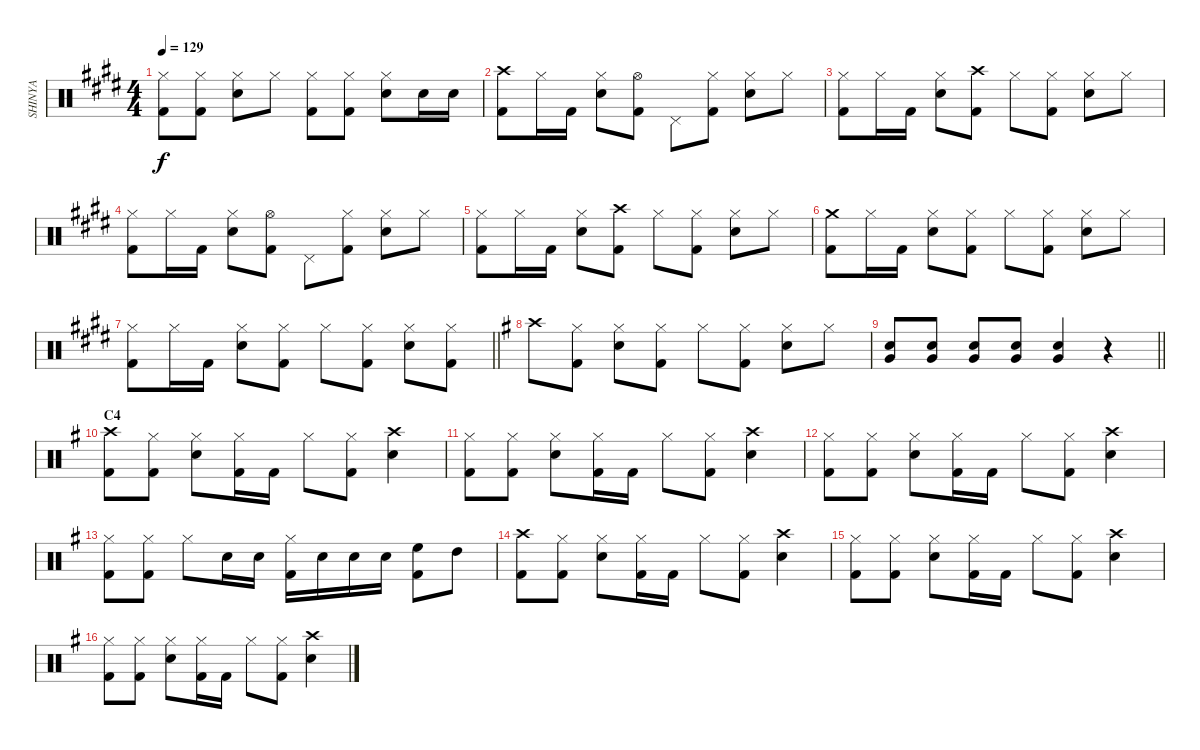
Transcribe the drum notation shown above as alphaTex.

\track ("SHINYA" "SHINYA") {instrument percussion}
\staff {score}
\articulation defaults
\ts (4 4)
\tempo 129
\clef neutral
\ks e
("Hi-Hat (closed)" "Kick (hit) 2").8{dy f} ("Hi-Hat (closed)" "Kick (hit) 2").8 ("Hi-Hat (closed)" "Snare (hit) 2").8 "Hi-Hat (closed)".8 ("Hi-Hat (closed)" "Kick (hit) 2").8 ("Hi-Hat (closed)" "Kick (hit) 2").8 ("Hi-Hat (closed)" "Snare (hit) 2").8 "Snare (hit) 2".16 "Snare (hit) 2".16 |
("Crash high (hit)" "Kick (hit) 2").8 "Hi-Hat (closed)".16 "Kick (hit) 2".16 ("Hi-Hat (closed)" "Snare (hit) 2").8 ("Hi-Hat (open)" "Kick (hit) 2").8 "Pedal Hi-Hat (hit)".8 ("Hi-Hat (closed)" "Kick (hit) 2").8 ("Hi-Hat (closed)" "Snare (hit) 2").8 "Hi-Hat (closed)".8 |
("Hi-Hat (closed)" "Kick (hit) 2").8 "Hi-Hat (closed)".16 "Kick (hit) 2".16 ("Hi-Hat (closed)" "Snare (hit) 2").8 ("Crash high (hit)" "Kick (hit) 2").8 "Hi-Hat (closed)".8 ("Hi-Hat (closed)" "Kick (hit) 2").8 ("Hi-Hat (closed)" "Snare (hit) 2").8 "Hi-Hat (closed)".8 |
("Hi-Hat (closed)" "Kick (hit) 2").8 "Hi-Hat (closed)".16 "Kick (hit) 2".16 ("Hi-Hat (closed)" "Snare (hit) 2").8 ("Hi-Hat (open)" "Kick (hit) 2").8 "Pedal Hi-Hat (hit)".8 ("Hi-Hat (closed)" "Kick (hit) 2").8 ("Hi-Hat (closed)" "Snare (hit) 2").8 "Hi-Hat (closed)".8 |
("Hi-Hat (closed)" "Kick (hit) 2").8 "Hi-Hat (closed)".16 "Kick (hit) 2".16 ("Hi-Hat (closed)" "Snare (hit) 2").8 ("Crash high (hit)" "Kick (hit) 2").8 "Hi-Hat (closed)".8 ("Hi-Hat (closed)" "Kick (hit) 2").8 ("Hi-Hat (closed)" "Snare (hit) 2").8 "Hi-Hat (closed)".8 |
("Crash medium (hit)" "Kick (hit) 2").8 "Hi-Hat (closed)".16 "Kick (hit) 2".16 ("Hi-Hat (closed)" "Snare (hit) 2").8 ("Hi-Hat (closed)" "Kick (hit) 2").8 "Hi-Hat (closed)".8 ("Hi-Hat (closed)" "Kick (hit) 2").8 ("Hi-Hat (closed)" "Snare (hit) 2").8 "Hi-Hat (closed)".8 |
\barLineRight lightlight
("Hi-Hat (closed)" "Kick (hit) 2").8 "Hi-Hat (closed)".16 "Kick (hit) 2".16 ("Hi-Hat (closed)" "Snare (hit) 2").8 ("Hi-Hat (closed)" "Kick (hit) 2").8 "Hi-Hat (closed)".8 ("Hi-Hat (closed)" "Kick (hit) 2").8 ("Hi-Hat (closed)" "Snare (hit) 2").8 ("Hi-Hat (closed)" "Kick (hit) 2").8 |
\ks g "Crash high (hit)".8
("Hi-Hat (closed)" "Kick (hit) 2").8 ("Hi-Hat (closed)" "Snare (hit) 2").8 ("Hi-Hat (closed)" "Kick (hit) 2").8 "Hi-Hat (closed)".8 ("Hi-Hat (closed)" "Kick (hit) 2").8 ("Hi-Hat (closed)" "Snare (hit) 2").8 "Hi-Hat (closed)".8 |
\barLineRight lightlight
("Snare (hit) 2" "Very Low Tom (hit)").8 ("Snare (hit) 2" "Very Low Tom (hit)").8 ("Snare (hit) 2" "Very Low Tom (hit)").8 ("Snare (hit) 2" "Very Low Tom (hit)").8 ("Snare (hit) 2" "Very Low Tom (hit)").4 r.4 |
\section ("" "C4")
("Crash high (hit)" "Kick (hit) 2").8 ("Hi-Hat (closed)" "Kick (hit) 2").8 ("Hi-Hat (closed)" "Snare (hit) 2").8 ("Hi-Hat (closed)" "Kick (hit) 2").16 "Kick (hit) 2".16 "Hi-Hat (closed)".8 ("Hi-Hat (closed)" "Kick (hit) 2").8 ("Crash high (hit)" "Snare (hit) 2").4 |
("Hi-Hat (closed)" "Kick (hit) 2").8 ("Hi-Hat (closed)" "Kick (hit) 2").8 ("Hi-Hat (closed)" "Snare (hit) 2").8 ("Hi-Hat (closed)" "Kick (hit) 2").16 "Kick (hit) 2".16 "Hi-Hat (closed)".8 ("Hi-Hat (closed)" "Kick (hit) 2").8 ("Crash high (hit)" "Snare (hit) 2").4 |
("Hi-Hat (closed)" "Kick (hit) 2").8 ("Hi-Hat (closed)" "Kick (hit) 2").8 ("Hi-Hat (closed)" "Snare (hit) 2").8 ("Hi-Hat (closed)" "Kick (hit) 2").16 "Kick (hit) 2".16 "Hi-Hat (closed)".8 ("Hi-Hat (closed)" "Kick (hit) 2").8 ("Crash high (hit)" "Snare (hit) 2").4 |
("Hi-Hat (closed)" "Kick (hit) 2").8 ("Hi-Hat (closed)" "Kick (hit) 2").8 "Hi-Hat (closed)".8 "Snare (hit) 2".16 "Snare (hit) 2".16 ("Hi-Hat (closed)" "Kick (hit) 2").16 "Snare (hit) 2".16 "Snare (hit) 2".16 "Snare (hit) 2".16 ("High Floor Tom (hit)" "Kick (hit) 2").8 "High Tom (hit)".8 |
("Crash high (hit)" "Kick (hit) 2").8 ("Hi-Hat (closed)" "Kick (hit) 2").8 ("Hi-Hat (closed)" "Snare (hit) 2").8 ("Hi-Hat (closed)" "Kick (hit) 2").16 "Kick (hit) 2".16 "Hi-Hat (closed)".8 ("Hi-Hat (closed)" "Kick (hit) 2").8 ("Crash high (hit)" "Snare (hit) 2").4 |
("Hi-Hat (closed)" "Kick (hit) 2").8 ("Hi-Hat (closed)" "Kick (hit) 2").8 ("Hi-Hat (closed)" "Snare (hit) 2").8 ("Hi-Hat (closed)" "Kick (hit) 2").16 "Kick (hit) 2".16 "Hi-Hat (closed)".8 ("Hi-Hat (closed)" "Kick (hit) 2").8 ("Crash high (hit)" "Snare (hit) 2").4 |
("Hi-Hat (closed)" "Kick (hit) 2").8 ("Hi-Hat (closed)" "Kick (hit) 2").8 ("Hi-Hat (closed)" "Snare (hit) 2").8 ("Hi-Hat (closed)" "Kick (hit) 2").16 "Kick (hit) 2".16 "Hi-Hat (closed)".8 ("Hi-Hat (closed)" "Kick (hit) 2").8 ("Crash high (hit)" "Snare (hit) 2").4
